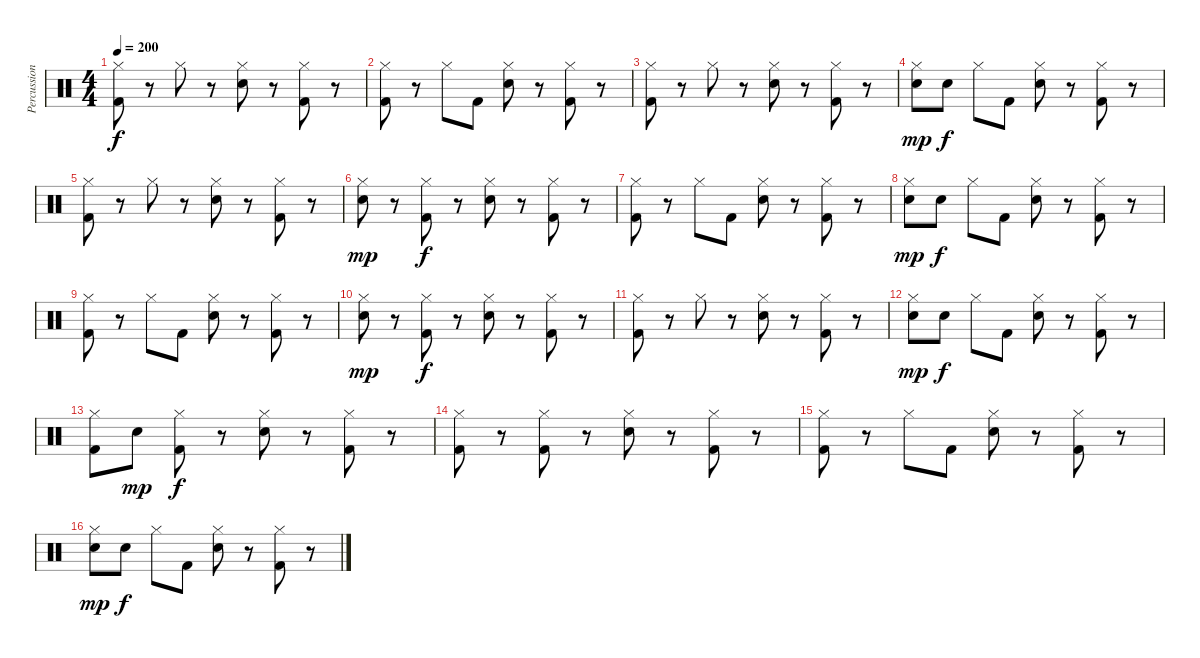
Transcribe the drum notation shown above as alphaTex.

\track ("Percussion" "Percussion") {instrument percussion}
\staff {score}
\articulation defaults
\ts (4 4)
\tempo 200
\clef neutral
\ks c
("Kick (hit) 2" "Hi-Hat (closed)").8{dy f} r.8 "Hi-Hat (closed)".8 r.8 ("Snare (hit) 2" "Hi-Hat (closed)").8 r.8 ("Hi-Hat (closed)" "Kick (hit) 2").8 r.8 |
("Kick (hit) 2" "Hi-Hat (closed)").8 r.8 "Hi-Hat (closed)".8 "Kick (hit) 2".8 ("Snare (hit) 2" "Hi-Hat (closed)").8 r.8 ("Kick (hit) 2" "Hi-Hat (closed)").8 r.8 |
("Kick (hit) 2" "Hi-Hat (closed)").8 r.8 "Hi-Hat (closed)".8 r.8 ("Snare (hit) 2" "Hi-Hat (closed)").8 r.8 ("Hi-Hat (closed)" "Kick (hit) 2").8 r.8 |
("Snare (hit) 2" "Hi-Hat (closed)").8{dy mp} "Snare (hit) 2".8{dy f} "Hi-Hat (closed)".8 "Kick (hit) 2".8 ("Snare (hit) 2" "Hi-Hat (closed)").8 r.8 ("Kick (hit) 2" "Hi-Hat (closed)").8 r.8 |
("Kick (hit) 2" "Hi-Hat (closed)").8 r.8 "Hi-Hat (closed)".8 r.8 ("Snare (hit) 2" "Hi-Hat (closed)").8 r.8 ("Hi-Hat (closed)" "Kick (hit) 2").8 r.8 |
("Snare (hit) 2" "Hi-Hat (closed)").8{dy mp} r.8 ("Hi-Hat (closed)" "Kick (hit) 2").8{dy f} r.8 ("Snare (hit) 2" "Hi-Hat (closed)").8 r.8 ("Kick (hit) 2" "Hi-Hat (closed)").8 r.8 |
("Kick (hit) 2" "Hi-Hat (closed)").8 r.8 "Hi-Hat (closed)".8 "Kick (hit) 2".8 ("Snare (hit) 2" "Hi-Hat (closed)").8 r.8 ("Hi-Hat (closed)" "Kick (hit) 2").8 r.8 |
("Snare (hit) 2" "Hi-Hat (closed)").8{dy mp} "Snare (hit) 2".8{dy f} "Hi-Hat (closed)".8 "Kick (hit) 2".8 ("Snare (hit) 2" "Hi-Hat (closed)").8 r.8 ("Kick (hit) 2" "Hi-Hat (closed)").8 r.8 |
("Kick (hit) 2" "Hi-Hat (closed)").8 r.8 "Hi-Hat (closed)".8 "Kick (hit) 2".8 ("Snare (hit) 2" "Hi-Hat (closed)").8 r.8 ("Hi-Hat (closed)" "Kick (hit) 2").8 r.8 |
("Snare (hit) 2" "Hi-Hat (closed)").8{dy mp} r.8 ("Hi-Hat (closed)" "Kick (hit) 2").8{dy f} r.8 ("Snare (hit) 2" "Hi-Hat (closed)").8 r.8 ("Kick (hit) 2" "Hi-Hat (closed)").8 r.8 |
("Kick (hit) 2" "Hi-Hat (closed)").8 r.8 "Hi-Hat (closed)".8 r.8 ("Snare (hit) 2" "Hi-Hat (closed)").8 r.8 ("Hi-Hat (closed)" "Kick (hit) 2").8 r.8 |
("Snare (hit) 2" "Hi-Hat (closed)").8{dy mp} "Snare (hit) 2".8{dy f} "Hi-Hat (closed)".8 "Kick (hit) 2".8 ("Snare (hit) 2" "Hi-Hat (closed)").8 r.8 ("Kick (hit) 2" "Hi-Hat (closed)").8 r.8 |
("Kick (hit) 2" "Hi-Hat (closed)").8 "Snare (hit) 2".8{dy mp} ("Hi-Hat (closed)" "Kick (hit) 2").8{dy f} r.8 ("Snare (hit) 2" "Hi-Hat (closed)").8 r.8 ("Hi-Hat (closed)" "Kick (hit) 2").8 r.8 |
("Hi-Hat (closed)" "Kick (hit) 2").8 r.8 ("Hi-Hat (closed)" "Kick (hit) 2").8 r.8 ("Snare (hit) 2" "Hi-Hat (closed)").8 r.8 ("Kick (hit) 2" "Hi-Hat (closed)").8 r.8 |
("Kick (hit) 2" "Hi-Hat (closed)").8 r.8 "Hi-Hat (closed)".8 "Kick (hit) 2".8 ("Snare (hit) 2" "Hi-Hat (closed)").8 r.8 ("Hi-Hat (closed)" "Kick (hit) 2").8 r.8 |
("Snare (hit) 2" "Hi-Hat (closed)").8{dy mp} "Snare (hit) 2".8{dy f} "Hi-Hat (closed)".8 "Kick (hit) 2".8 ("Snare (hit) 2" "Hi-Hat (closed)").8 r.8 ("Kick (hit) 2" "Hi-Hat (closed)").8 r.8
